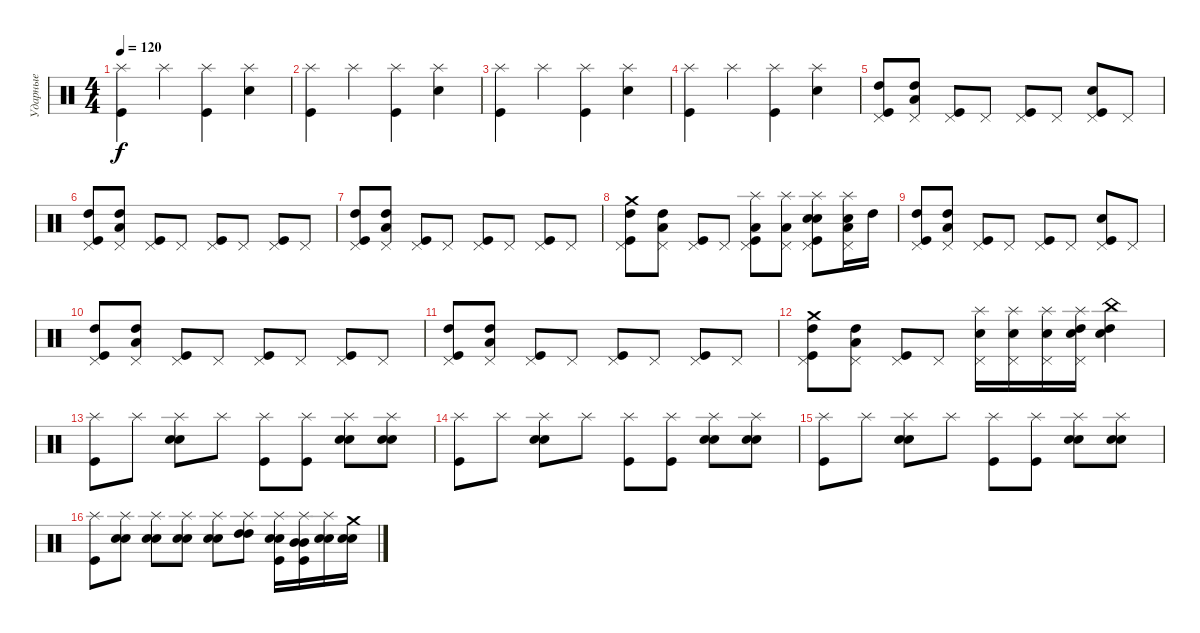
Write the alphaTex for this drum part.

\track ("Ударные" "Ударные") {instrument percussion}
\staff {score}
\articulation defaults
\ts (4 4)
\tempo 120
\clef neutral
\ks c
("Splash (hit)" "Kick (hit)").4{dy f} "Splash (hit)".4 ("Splash (hit)" "Kick (hit)").4 ("Splash (hit)" "Snare (hit) 2").4 |
("Splash (hit)" "Kick (hit)").4 "Splash (hit)".4 ("Splash (hit)" "Kick (hit)").4 ("Splash (hit)" "Snare (hit) 2").4 |
("Splash (hit)" "Kick (hit)").4 "Splash (hit)".4 ("Splash (hit)" "Kick (hit)").4 ("Splash (hit)" "Snare (hit) 2").4 |
("Splash (hit)" "Kick (hit)").4 "Splash (hit)".4 ("Splash (hit)" "Kick (hit)").4 ("Splash (hit)" "Snare (hit) 2").4 |
("Pedal Hi-Hat (hit)" "High Tom (hit)" "Kick (hit)").8 ("Pedal Hi-Hat (hit)" "High Tom (hit)" "Low Floor Tom (hit)").8 ("Pedal Hi-Hat (hit)" "Kick (hit)").8 "Pedal Hi-Hat (hit)".8 ("Pedal Hi-Hat (hit)" "Kick (hit)").8 "Pedal Hi-Hat (hit)".8 ("Pedal Hi-Hat (hit)" "Snare (hit) 2" "Kick (hit)").8 "Pedal Hi-Hat (hit)".8 |
("Pedal Hi-Hat (hit)" "High Tom (hit)" "Kick (hit)").8 ("Pedal Hi-Hat (hit)" "High Tom (hit)" "Low Floor Tom (hit)").8 ("Pedal Hi-Hat (hit)" "Kick (hit)").8 "Pedal Hi-Hat (hit)".8 ("Pedal Hi-Hat (hit)" "Kick (hit)").8 "Pedal Hi-Hat (hit)".8 ("Pedal Hi-Hat (hit)" "Kick (hit)").8 "Pedal Hi-Hat (hit)".8 |
("Pedal Hi-Hat (hit)" "High Tom (hit)" "Kick (hit)").8 ("Pedal Hi-Hat (hit)" "High Tom (hit)" "Low Floor Tom (hit)").8 ("Pedal Hi-Hat (hit)" "Kick (hit)").8 "Pedal Hi-Hat (hit)".8 ("Pedal Hi-Hat (hit)" "Kick (hit)").8 "Pedal Hi-Hat (hit)".8 ("Pedal Hi-Hat (hit)" "Kick (hit)").8 "Pedal Hi-Hat (hit)".8 |
("Pedal Hi-Hat (hit)" "Crash medium (hit)" "High Tom (hit)" "Kick (hit)").8 ("Pedal Hi-Hat (hit)" "High Tom (hit)" "Low Floor Tom (hit)").8 ("Pedal Hi-Hat (hit)" "Kick (hit)").8 "Pedal Hi-Hat (hit)".8 ("Pedal Hi-Hat (hit)" "Splash (hit)" "Low Floor Tom (hit)" "Kick (hit)").8 ("Pedal Hi-Hat (hit)" "Splash (hit)" "Low Floor Tom (hit)").8 ("Pedal Hi-Hat (hit)" "Splash (hit)" "Electric Snare (hit)" "Snare (hit) 2" "Kick (hit)").8 ("Pedal Hi-Hat (hit)" "Splash (hit)" "Electric Snare (hit)" "Low Floor Tom (hit)").16 "High Tom (hit)".16 |
("Pedal Hi-Hat (hit)" "High Tom (hit)" "Kick (hit)").8 ("Pedal Hi-Hat (hit)" "High Tom (hit)" "Low Floor Tom (hit)").8 ("Pedal Hi-Hat (hit)" "Kick (hit)").8 "Pedal Hi-Hat (hit)".8 ("Pedal Hi-Hat (hit)" "Kick (hit)").8 "Pedal Hi-Hat (hit)".8 ("Pedal Hi-Hat (hit)" "Snare (hit) 2" "Kick (hit)").8 "Pedal Hi-Hat (hit)".8 |
("Pedal Hi-Hat (hit)" "High Tom (hit)" "Kick (hit)").8 ("Pedal Hi-Hat (hit)" "High Tom (hit)" "Low Floor Tom (hit)").8 ("Pedal Hi-Hat (hit)" "Kick (hit)").8 "Pedal Hi-Hat (hit)".8 ("Pedal Hi-Hat (hit)" "Kick (hit)").8 "Pedal Hi-Hat (hit)".8 ("Pedal Hi-Hat (hit)" "Kick (hit)").8 "Pedal Hi-Hat (hit)".8 |
("Pedal Hi-Hat (hit)" "High Tom (hit)" "Kick (hit)").8 ("Pedal Hi-Hat (hit)" "High Tom (hit)" "Low Floor Tom (hit)").8 ("Pedal Hi-Hat (hit)" "Kick (hit)").8 "Pedal Hi-Hat (hit)".8 ("Pedal Hi-Hat (hit)" "Kick (hit)").8 "Pedal Hi-Hat (hit)".8 ("Pedal Hi-Hat (hit)" "Kick (hit)").8 "Pedal Hi-Hat (hit)".8 |
("Pedal Hi-Hat (hit)" "Crash medium (hit)" "High Tom (hit)" "Kick (hit)").8 ("Pedal Hi-Hat (hit)" "High Tom (hit)" "Low Floor Tom (hit)").8 ("Pedal Hi-Hat (hit)" "Kick (hit)").8 "Pedal Hi-Hat (hit)".8 ("Pedal Hi-Hat (hit)" "Splash (hit)" "Snare (hit) 2").16 ("Pedal Hi-Hat (hit)" "Splash (hit)" "Electric Snare (hit)").16 ("Pedal Hi-Hat (hit)" "Splash (hit)" "Snare (hit) 2").16 ("Pedal Hi-Hat (hit)" "Splash (hit)" "High Tom (hit)" "Electric Snare (hit)").16 ("China (hit)" "High Tom (hit)" "Snare (hit) 2").4 |
("Splash (hit)" "Kick (hit)").8 "Splash (hit)".8 ("Splash (hit)" "Snare (hit) 2" "Snare (hit) 2").8 "Splash (hit)".8 ("Splash (hit)" "Kick (hit)").8 ("Splash (hit)" "Kick (hit)").8 ("Splash (hit)" "Snare (hit) 2" "Snare (hit) 2").8 ("Splash (hit)" "Snare (hit) 2" "Snare (hit) 2").8 |
("Splash (hit)" "Kick (hit)").8 "Splash (hit)".8 ("Splash (hit)" "Snare (hit) 2" "Snare (hit) 2").8 "Splash (hit)".8 ("Splash (hit)" "Kick (hit)").8 ("Splash (hit)" "Kick (hit)").8 ("Splash (hit)" "Snare (hit) 2" "Snare (hit) 2").8 ("Splash (hit)" "Snare (hit) 2" "Snare (hit) 2").8 |
("Splash (hit)" "Kick (hit)").8 "Splash (hit)".8 ("Splash (hit)" "Snare (hit) 2" "Snare (hit) 2").8 "Splash (hit)".8 ("Splash (hit)" "Kick (hit)").8 ("Splash (hit)" "Kick (hit)").8 ("Splash (hit)" "Snare (hit) 2" "Snare (hit) 2").8 ("Splash (hit)" "Snare (hit) 2" "Snare (hit) 2").8 |
("Splash (hit)" "Kick (hit)").8 ("Splash (hit)" "Electric Snare (hit)" "Electric Snare (hit)").8 ("Splash (hit)" "Snare (hit) 2" "Snare (hit) 2").8 ("Splash (hit)" "Snare (hit) 2" "Snare (hit) 2").8 ("Splash (hit)" "Electric Snare (hit)" "Electric Snare (hit)").8 ("Splash (hit)" "High Tom (hit)" "High Tom (hit)").8 ("Splash (hit)" "Snare (hit) 2" "Snare (hit) 2" "Kick (hit)").16 ("Splash (hit)" "Mid Tom (hit)" "Mid Tom (hit)" "Kick (hit)").16 ("Splash (hit)" "Snare (hit) 2" "Snare (hit) 2").16 ("Crash medium (hit)" "Snare (hit) 2" "Snare (hit) 2").16
